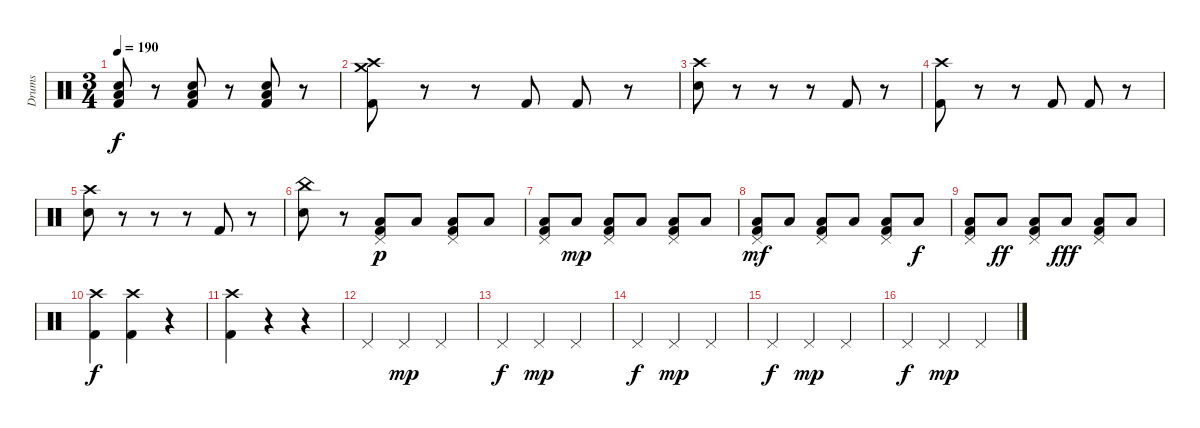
\track ("Drums" "Drums") {instrument percussion}
\staff {score}
\articulation defaults
\ts (3 4)
\tempo 190
\clef neutral
\ks c
("Low Floor Tom (hit)" "Electric Snare (hit)" "Kick (hit) 2").8{dy f} r.8 ("Low Floor Tom (hit)" "Electric Snare (hit)" "Kick (hit) 2").8 r.8 ("Low Floor Tom (hit)" "Electric Snare (hit)" "Kick (hit) 2").8 r.8 |
("Crash medium (hit)" "Crash high (hit)" "Kick (hit) 2").8 r.8 r.8 "Kick (hit) 2".8 "Kick (hit) 2".8 r.8 |
("Crash high (hit)" "Electric Snare (hit)").8 r.8 r.8 r.8 "Kick (hit) 2".8 r.8 |
("Crash high (hit)" "Kick (hit) 2").8 r.8 r.8 "Kick (hit) 2".8 "Kick (hit) 2".8 r.8 |
("Crash high (hit)" "Electric Snare (hit)").8 r.8 r.8 r.8 "Kick (hit) 2".8 r.8 |
("China (hit)" "Electric Snare (hit)").8 r.8 ("Pedal Hi-Hat (hit)" "Low Floor Tom (hit)" "Kick (hit) 2").8{dy p} "Low Floor Tom (hit)".8 ("Pedal Hi-Hat (hit)" "Low Floor Tom (hit)" "Kick (hit) 2").8 "Low Floor Tom (hit)".8 |
("Pedal Hi-Hat (hit)" "Low Floor Tom (hit)" "Kick (hit) 2").8 "Low Floor Tom (hit)".8{dy mp} ("Pedal Hi-Hat (hit)" "Low Floor Tom (hit)" "Kick (hit) 2").8 "Low Floor Tom (hit)".8 ("Pedal Hi-Hat (hit)" "Low Floor Tom (hit)" "Kick (hit) 2").8 "Low Floor Tom (hit)".8 |
("Pedal Hi-Hat (hit)" "Low Floor Tom (hit)" "Kick (hit) 2").8{dy mf} "Low Floor Tom (hit)".8 ("Pedal Hi-Hat (hit)" "Low Floor Tom (hit)" "Kick (hit) 2").8 "Low Floor Tom (hit)".8 ("Pedal Hi-Hat (hit)" "Low Floor Tom (hit)" "Kick (hit) 2").8 "Low Floor Tom (hit)".8{dy f} |
("Pedal Hi-Hat (hit)" "Low Floor Tom (hit)" "Kick (hit) 2").8 "Low Floor Tom (hit)".8{dy ff} ("Pedal Hi-Hat (hit)" "Low Floor Tom (hit)" "Kick (hit) 2").8 "Low Floor Tom (hit)".8{dy fff} ("Pedal Hi-Hat (hit)" "Low Floor Tom (hit)" "Kick (hit) 2").8 "Low Floor Tom (hit)".8 |
("Crash high (hit)" "Kick (hit) 2").4{dy f} ("Crash high (hit)" "Kick (hit) 2").4 r.4 |
("Crash high (hit)" "Kick (hit) 2").4 r.4 r.4 |
"Pedal Hi-Hat (hit)".4 "Pedal Hi-Hat (hit)".4{dy mp} "Pedal Hi-Hat (hit)".4 |
"Pedal Hi-Hat (hit)".4{dy f} "Pedal Hi-Hat (hit)".4{dy mp} "Pedal Hi-Hat (hit)".4 |
"Pedal Hi-Hat (hit)".4{dy f} "Pedal Hi-Hat (hit)".4{dy mp} "Pedal Hi-Hat (hit)".4 |
"Pedal Hi-Hat (hit)".4{dy f} "Pedal Hi-Hat (hit)".4{dy mp} "Pedal Hi-Hat (hit)".4 |
"Pedal Hi-Hat (hit)".4{dy f} "Pedal Hi-Hat (hit)".4{dy mp} "Pedal Hi-Hat (hit)".4
